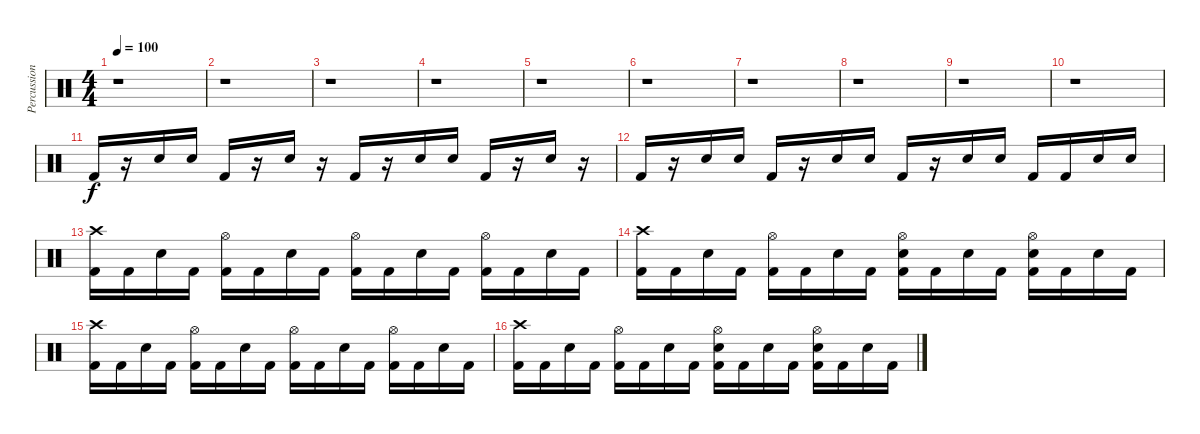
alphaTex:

\track ("Percussion" "Percussion") {instrument percussion}
\staff {score}
\articulation defaults
\ts (4 4)
\tempo 100
\clef neutral
\ks c
r.1{dy f} |
r.1 |
r.1 |
r.1 |
r.1 |
r.1 |
r.1 |
r.1 |
r.1 |
r.1 |
"Kick (hit) 2".16 r.16 "Electric Snare (hit)".16 "Electric Snare (hit)".16 "Kick (hit) 2".16 r.16 "Electric Snare (hit)".16 r.16 "Kick (hit) 2".16 r.16 "Electric Snare (hit)".16 "Electric Snare (hit)".16 "Kick (hit) 2".16 r.16 "Electric Snare (hit)".16 r.16 |
"Kick (hit) 2".16 r.16 "Electric Snare (hit)".16 "Electric Snare (hit)".16 "Kick (hit) 2".16 r.16 "Electric Snare (hit)".16 "Electric Snare (hit)".16 "Kick (hit) 2".16 r.16 "Electric Snare (hit)".16 "Electric Snare (hit)".16 "Kick (hit) 2".16 "Kick (hit) 2".16 "Electric Snare (hit)".16 "Electric Snare (hit)".16 |
("Crash high (hit)" "Kick (hit) 2").16 "Kick (hit) 2".16 "Electric Snare (hit)".16 "Kick (hit) 2".16 ("Hi-Hat (open)" "Kick (hit) 2").16 "Kick (hit) 2".16 "Electric Snare (hit)".16 "Kick (hit) 2".16 ("Hi-Hat (open)" "Kick (hit) 2").16 "Kick (hit) 2".16 "Electric Snare (hit)".16 "Kick (hit) 2".16 ("Hi-Hat (open)" "Kick (hit) 2").16 "Kick (hit) 2".16 "Electric Snare (hit)".16 "Kick (hit) 2".16 |
("Crash high (hit)" "Kick (hit) 2").16 "Kick (hit) 2".16 "Electric Snare (hit)".16 "Kick (hit) 2".16 ("Hi-Hat (open)" "Kick (hit) 2").16 "Kick (hit) 2".16 "Electric Snare (hit)".16 "Kick (hit) 2".16 ("Hi-Hat (open)" "Electric Snare (hit)" "Kick (hit) 2").16 "Kick (hit) 2".16 "Electric Snare (hit)".16 "Kick (hit) 2".16 ("Hi-Hat (open)" "Electric Snare (hit)" "Kick (hit) 2").16 "Kick (hit) 2".16 "Electric Snare (hit)".16 "Kick (hit) 2".16 |
("Crash high (hit)" "Kick (hit) 2").16 "Kick (hit) 2".16 "Electric Snare (hit)".16 "Kick (hit) 2".16 ("Hi-Hat (open)" "Kick (hit) 2").16 "Kick (hit) 2".16 "Electric Snare (hit)".16 "Kick (hit) 2".16 ("Hi-Hat (open)" "Kick (hit) 2").16 "Kick (hit) 2".16 "Electric Snare (hit)".16 "Kick (hit) 2".16 ("Hi-Hat (open)" "Kick (hit) 2").16 "Kick (hit) 2".16 "Electric Snare (hit)".16 "Kick (hit) 2".16 |
("Crash high (hit)" "Kick (hit) 2").16 "Kick (hit) 2".16 "Electric Snare (hit)".16 "Kick (hit) 2".16 ("Hi-Hat (open)" "Kick (hit) 2").16 "Kick (hit) 2".16 "Electric Snare (hit)".16 "Kick (hit) 2".16 ("Hi-Hat (open)" "Electric Snare (hit)" "Kick (hit) 2").16 "Kick (hit) 2".16 "Electric Snare (hit)".16 "Kick (hit) 2".16 ("Hi-Hat (open)" "Electric Snare (hit)" "Kick (hit) 2").16 "Kick (hit) 2".16 "Electric Snare (hit)".16 "Kick (hit) 2".16
